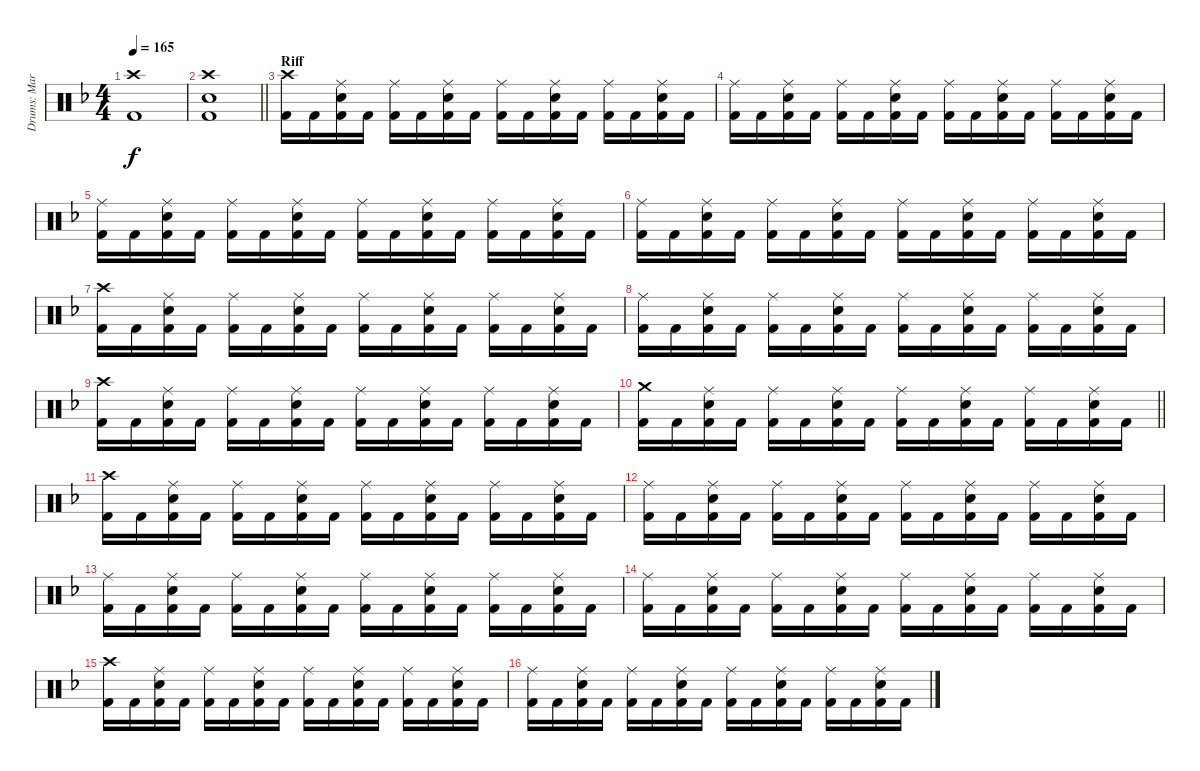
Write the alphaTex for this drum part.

\track ("Drums: Martin Herzinger" "Drums: Mar") {instrument percussion}
\staff {score}
\articulation defaults
\ts (4 4)
\tempo 165
\clef neutral
\ks dminor
("Crash high (hit)" "Kick (hit) 2").1{dy f} |
\barLineRight lightlight
("Crash high (hit)" "Snare (hit) 2" "Kick (hit) 2").1 |
\section ("" "Riff")
("Crash high (hit)" "Kick (hit) 2").16 "Kick (hit) 2".16 ("Ride (middle)" "Snare (hit) 2" "Kick (hit) 2").16 "Kick (hit) 2".16 ("Ride (middle)" "Kick (hit) 2").16 "Kick (hit) 2".16 ("Ride (middle)" "Snare (hit) 2" "Kick (hit) 2").16 "Kick (hit) 2".16 ("Ride (middle)" "Kick (hit) 2").16 "Kick (hit) 2".16 ("Ride (middle)" "Snare (hit) 2" "Kick (hit) 2").16 "Kick (hit) 2".16 ("Ride (middle)" "Kick (hit) 2").16 "Kick (hit) 2".16 ("Ride (middle)" "Snare (hit) 2" "Kick (hit) 2").16 "Kick (hit) 2".16 |
("Ride (middle)" "Kick (hit) 2").16 "Kick (hit) 2".16 ("Ride (middle)" "Snare (hit) 2" "Kick (hit) 2").16 "Kick (hit) 2".16 ("Ride (middle)" "Kick (hit) 2").16 "Kick (hit) 2".16 ("Ride (middle)" "Snare (hit) 2" "Kick (hit) 2").16 "Kick (hit) 2".16 ("Ride (middle)" "Kick (hit) 2").16 "Kick (hit) 2".16 ("Ride (middle)" "Snare (hit) 2" "Kick (hit) 2").16 "Kick (hit) 2".16 ("Ride (middle)" "Kick (hit) 2").16 "Kick (hit) 2".16 ("Ride (middle)" "Snare (hit) 2" "Kick (hit) 2").16 "Kick (hit) 2".16 |
("Ride (middle)" "Kick (hit) 2").16 "Kick (hit) 2".16 ("Ride (middle)" "Snare (hit) 2" "Kick (hit) 2").16 "Kick (hit) 2".16 ("Ride (middle)" "Kick (hit) 2").16 "Kick (hit) 2".16 ("Ride (middle)" "Snare (hit) 2" "Kick (hit) 2").16 "Kick (hit) 2".16 ("Ride (middle)" "Kick (hit) 2").16 "Kick (hit) 2".16 ("Ride (middle)" "Snare (hit) 2" "Kick (hit) 2").16 "Kick (hit) 2".16 ("Ride (middle)" "Kick (hit) 2").16 "Kick (hit) 2".16 ("Ride (middle)" "Snare (hit) 2" "Kick (hit) 2").16 "Kick (hit) 2".16 |
("Ride (middle)" "Kick (hit) 2").16 "Kick (hit) 2".16 ("Ride (middle)" "Snare (hit) 2" "Kick (hit) 2").16 "Kick (hit) 2".16 ("Ride (middle)" "Kick (hit) 2").16 "Kick (hit) 2".16 ("Ride (middle)" "Snare (hit) 2" "Kick (hit) 2").16 "Kick (hit) 2".16 ("Ride (middle)" "Kick (hit) 2").16 "Kick (hit) 2".16 ("Ride (middle)" "Snare (hit) 2" "Kick (hit) 2").16 "Kick (hit) 2".16 ("Ride (middle)" "Kick (hit) 2").16 "Kick (hit) 2".16 ("Ride (middle)" "Snare (hit) 2" "Kick (hit) 2").16 "Kick (hit) 2".16 |
("Crash high (hit)" "Kick (hit) 2").16 "Kick (hit) 2".16 ("Ride (middle)" "Snare (hit) 2" "Kick (hit) 2").16 "Kick (hit) 2".16 ("Ride (middle)" "Kick (hit) 2").16 "Kick (hit) 2".16 ("Ride (middle)" "Snare (hit) 2" "Kick (hit) 2").16 "Kick (hit) 2".16 ("Ride (middle)" "Kick (hit) 2").16 "Kick (hit) 2".16 ("Ride (middle)" "Snare (hit) 2" "Kick (hit) 2").16 "Kick (hit) 2".16 ("Ride (middle)" "Kick (hit) 2").16 "Kick (hit) 2".16 ("Ride (middle)" "Snare (hit) 2" "Kick (hit) 2").16 "Kick (hit) 2".16 |
("Ride (middle)" "Kick (hit) 2").16 "Kick (hit) 2".16 ("Ride (middle)" "Snare (hit) 2" "Kick (hit) 2").16 "Kick (hit) 2".16 ("Ride (middle)" "Kick (hit) 2").16 "Kick (hit) 2".16 ("Ride (middle)" "Snare (hit) 2" "Kick (hit) 2").16 "Kick (hit) 2".16 ("Ride (middle)" "Kick (hit) 2").16 "Kick (hit) 2".16 ("Ride (middle)" "Snare (hit) 2" "Kick (hit) 2").16 "Kick (hit) 2".16 ("Ride (middle)" "Kick (hit) 2").16 "Kick (hit) 2".16 ("Ride (middle)" "Snare (hit) 2" "Kick (hit) 2").16 "Kick (hit) 2".16 |
("Crash high (hit)" "Kick (hit) 2").16 "Kick (hit) 2".16 ("Ride (middle)" "Snare (hit) 2" "Kick (hit) 2").16 "Kick (hit) 2".16 ("Ride (middle)" "Kick (hit) 2").16 "Kick (hit) 2".16 ("Ride (middle)" "Snare (hit) 2" "Kick (hit) 2").16 "Kick (hit) 2".16 ("Ride (middle)" "Kick (hit) 2").16 "Kick (hit) 2".16 ("Ride (middle)" "Snare (hit) 2" "Kick (hit) 2").16 "Kick (hit) 2".16 ("Ride (middle)" "Kick (hit) 2").16 "Kick (hit) 2".16 ("Ride (middle)" "Snare (hit) 2" "Kick (hit) 2").16 "Kick (hit) 2".16 |
\barLineRight lightlight
("Crash medium (hit)" "Kick (hit) 2").16 "Kick (hit) 2".16 ("Ride (middle)" "Snare (hit) 2" "Kick (hit) 2").16 "Kick (hit) 2".16 ("Ride (middle)" "Kick (hit) 2").16 "Kick (hit) 2".16 ("Ride (middle)" "Snare (hit) 2" "Kick (hit) 2").16 "Kick (hit) 2".16 ("Ride (middle)" "Kick (hit) 2").16 "Kick (hit) 2".16 ("Ride (middle)" "Snare (hit) 2" "Kick (hit) 2").16 "Kick (hit) 2".16 ("Ride (middle)" "Kick (hit) 2").16 "Kick (hit) 2".16 ("Ride (middle)" "Snare (hit) 2" "Kick (hit) 2").16 "Kick (hit) 2".16 |
("Crash high (hit)" "Kick (hit) 2").16 "Kick (hit) 2".16 ("Ride (middle)" "Snare (hit) 2" "Kick (hit) 2").16 "Kick (hit) 2".16 ("Ride (middle)" "Kick (hit) 2").16 "Kick (hit) 2".16 ("Ride (middle)" "Snare (hit) 2" "Kick (hit) 2").16 "Kick (hit) 2".16 ("Ride (middle)" "Kick (hit) 2").16 "Kick (hit) 2".16 ("Ride (middle)" "Snare (hit) 2" "Kick (hit) 2").16 "Kick (hit) 2".16 ("Ride (middle)" "Kick (hit) 2").16 "Kick (hit) 2".16 ("Ride (middle)" "Snare (hit) 2" "Kick (hit) 2").16 "Kick (hit) 2".16 |
("Ride (middle)" "Kick (hit) 2").16 "Kick (hit) 2".16 ("Ride (middle)" "Snare (hit) 2" "Kick (hit) 2").16 "Kick (hit) 2".16 ("Ride (middle)" "Kick (hit) 2").16 "Kick (hit) 2".16 ("Ride (middle)" "Snare (hit) 2" "Kick (hit) 2").16 "Kick (hit) 2".16 ("Ride (middle)" "Kick (hit) 2").16 "Kick (hit) 2".16 ("Ride (middle)" "Snare (hit) 2" "Kick (hit) 2").16 "Kick (hit) 2".16 ("Ride (middle)" "Kick (hit) 2").16 "Kick (hit) 2".16 ("Ride (middle)" "Snare (hit) 2" "Kick (hit) 2").16 "Kick (hit) 2".16 |
("Ride (middle)" "Kick (hit) 2").16 "Kick (hit) 2".16 ("Ride (middle)" "Snare (hit) 2" "Kick (hit) 2").16 "Kick (hit) 2".16 ("Ride (middle)" "Kick (hit) 2").16 "Kick (hit) 2".16 ("Ride (middle)" "Snare (hit) 2" "Kick (hit) 2").16 "Kick (hit) 2".16 ("Ride (middle)" "Kick (hit) 2").16 "Kick (hit) 2".16 ("Ride (middle)" "Snare (hit) 2" "Kick (hit) 2").16 "Kick (hit) 2".16 ("Ride (middle)" "Kick (hit) 2").16 "Kick (hit) 2".16 ("Ride (middle)" "Snare (hit) 2" "Kick (hit) 2").16 "Kick (hit) 2".16 |
("Ride (middle)" "Kick (hit) 2").16 "Kick (hit) 2".16 ("Ride (middle)" "Snare (hit) 2" "Kick (hit) 2").16 "Kick (hit) 2".16 ("Ride (middle)" "Kick (hit) 2").16 "Kick (hit) 2".16 ("Ride (middle)" "Snare (hit) 2" "Kick (hit) 2").16 "Kick (hit) 2".16 ("Ride (middle)" "Kick (hit) 2").16 "Kick (hit) 2".16 ("Ride (middle)" "Snare (hit) 2" "Kick (hit) 2").16 "Kick (hit) 2".16 ("Ride (middle)" "Kick (hit) 2").16 "Kick (hit) 2".16 ("Ride (middle)" "Snare (hit) 2" "Kick (hit) 2").16 "Kick (hit) 2".16 |
("Crash high (hit)" "Kick (hit) 2").16 "Kick (hit) 2".16 ("Ride (middle)" "Snare (hit) 2" "Kick (hit) 2").16 "Kick (hit) 2".16 ("Ride (middle)" "Kick (hit) 2").16 "Kick (hit) 2".16 ("Ride (middle)" "Snare (hit) 2" "Kick (hit) 2").16 "Kick (hit) 2".16 ("Ride (middle)" "Kick (hit) 2").16 "Kick (hit) 2".16 ("Ride (middle)" "Snare (hit) 2" "Kick (hit) 2").16 "Kick (hit) 2".16 ("Ride (middle)" "Kick (hit) 2").16 "Kick (hit) 2".16 ("Ride (middle)" "Snare (hit) 2" "Kick (hit) 2").16 "Kick (hit) 2".16 |
("Ride (middle)" "Kick (hit) 2").16 "Kick (hit) 2".16 ("Ride (middle)" "Snare (hit) 2" "Kick (hit) 2").16 "Kick (hit) 2".16 ("Ride (middle)" "Kick (hit) 2").16 "Kick (hit) 2".16 ("Ride (middle)" "Snare (hit) 2" "Kick (hit) 2").16 "Kick (hit) 2".16 ("Ride (middle)" "Kick (hit) 2").16 "Kick (hit) 2".16 ("Ride (middle)" "Snare (hit) 2" "Kick (hit) 2").16 "Kick (hit) 2".16 ("Ride (middle)" "Kick (hit) 2").16 "Kick (hit) 2".16 ("Ride (middle)" "Snare (hit) 2" "Kick (hit) 2").16 "Kick (hit) 2".16
